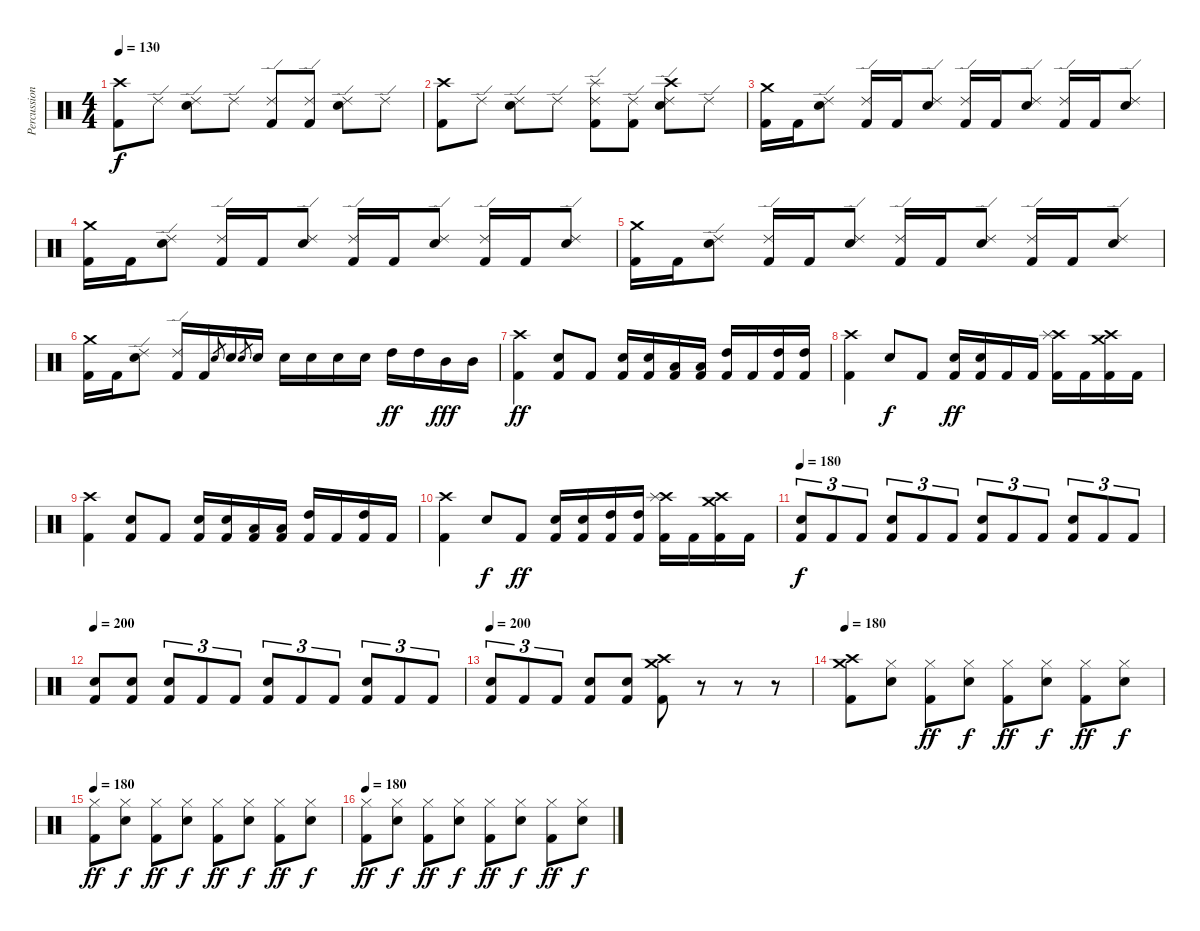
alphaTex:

\track ("Percussion" "Percussion") {instrument percussion}
\staff {score}
\articulation defaults
\ts (4 4)
\tempo 130
\clef neutral
\ks c
("Crash high (hit)" "Kick (hit) 2").8{dy f} "Ride (edge) 2".8 ("Ride (edge) 2" "Snare (hit) 2").8 "Ride (edge) 2".8 ("Ride (edge) 2" "Kick (hit) 2").8 ("Ride (edge) 2" "Kick (hit) 2").8 ("Ride (edge) 2" "Snare (hit) 2").8 "Ride (edge) 2".8 |
("Crash high (hit)" "Kick (hit) 2").8 "Ride (edge) 2".8 ("Ride (edge) 2" "Snare (hit) 2").8 "Ride (edge) 2".8 ("Splash (hit)" "Ride (edge) 2" "Kick (hit) 2").8 ("Ride (edge) 2" "Kick (hit) 2").8 ("Crash high (hit)" "Ride (edge) 2" "Snare (hit) 2").8 "Ride (edge) 2".8 |
("Crash medium (hit)" "Kick (hit) 2").16 "Kick (hit) 2".16 ("Ride (edge) 2" "Snare (hit) 2").8 ("Ride (edge) 2" "Kick (hit) 2").16 "Kick (hit) 2".16 ("Ride (edge) 2" "Snare (hit) 2").8 ("Ride (edge) 2" "Kick (hit) 2").16 "Kick (hit) 2".16 ("Ride (edge) 2" "Snare (hit) 2").8 ("Ride (edge) 2" "Kick (hit) 2").16 "Kick (hit) 2".16 ("Ride (edge) 2" "Snare (hit) 2").8 |
("Crash medium (hit)" "Kick (hit) 2").16 "Kick (hit) 2".16 ("Ride (edge) 2" "Snare (hit) 2").8 ("Ride (edge) 2" "Kick (hit) 2").16 "Kick (hit) 2".16 ("Ride (edge) 2" "Snare (hit) 2").8 ("Ride (edge) 2" "Kick (hit) 2").16 "Kick (hit) 2".16 ("Ride (edge) 2" "Snare (hit) 2").8 ("Ride (edge) 2" "Kick (hit) 2").16 "Kick (hit) 2".16 ("Ride (edge) 2" "Snare (hit) 2").8 |
("Crash medium (hit)" "Kick (hit) 2").16 "Kick (hit) 2".16 ("Ride (edge) 2" "Snare (hit) 2").8 ("Ride (edge) 2" "Kick (hit) 2").16 "Kick (hit) 2".16 ("Ride (edge) 2" "Snare (hit) 2").8 ("Ride (edge) 2" "Kick (hit) 2").16 "Kick (hit) 2".16 ("Ride (edge) 2" "Snare (hit) 2").8 ("Ride (edge) 2" "Kick (hit) 2").16 "Kick (hit) 2".16 ("Ride (edge) 2" "Snare (hit) 2").8 |
("Crash medium (hit)" "Kick (hit) 2").16 "Kick (hit) 2".16 ("Ride (edge) 2" "Snare (hit) 2").8 ("Ride (edge) 2" "Kick (hit) 2").16 "Kick (hit) 2".16 "Snare (hit) 2".8{gr} "Snare (hit) 2".16 "Snare (hit) 2".8{gr} "Snare (hit) 2".16 "Snare (hit) 2".16 "Snare (hit) 2".16 "Snare (hit) 2".16 "Snare (hit) 2".16 "High Tom (hit)".16{dy ff} "High Tom (hit)".16 "Mid Tom (hit)".16{dy fff} "Mid Tom (hit)".16 |
("Crash high (hit)" "Kick (hit) 2").4{dy ff} ("Snare (hit) 2" "Kick (hit) 2").8 "Kick (hit) 2".8 ("Snare (hit) 2" "Kick (hit) 2").16 ("Snare (hit) 2" "Kick (hit) 2").16 ("Low Tom (hit)" "Kick (hit) 2").16 ("Low Tom (hit)" "Kick (hit) 2").16 ("High Tom (hit)" "Kick (hit) 2").16 "Kick (hit) 2".16 ("High Tom (hit)" "Kick (hit) 2").16 ("High Tom (hit)" "Kick (hit) 2").16 |
("Crash high (hit)" "Kick (hit) 2").4 "Snare (hit) 2".8{dy f} "Kick (hit) 2".8 ("Snare (hit) 2" "Kick (hit) 2").16{dy ff} ("Snare (hit) 2" "Kick (hit) 2").16 "Kick (hit) 2".16 "Kick (hit) 2".16 ("Crash high (hit)" "Splash (hit)" "Kick (hit) 2").16 "Kick (hit) 2".16 ("Crash high (hit)" "Crash medium (hit)" "Kick (hit) 2").16 "Kick (hit) 2".16 |
("Crash high (hit)" "Kick (hit) 2").4 ("Snare (hit) 2" "Kick (hit) 2").8 "Kick (hit) 2".8 ("Snare (hit) 2" "Kick (hit) 2").16 ("Snare (hit) 2" "Kick (hit) 2").16 ("Low Tom (hit)" "Kick (hit) 2").16 ("Low Tom (hit)" "Kick (hit) 2").16 ("High Tom (hit)" "Kick (hit) 2").16 "Kick (hit) 2".16 ("High Tom (hit)" "Kick (hit) 2").16 "Kick (hit) 2".16 |
("Crash high (hit)" "Kick (hit) 2").4 "Snare (hit) 2".8{dy f} "Kick (hit) 2".8{dy ff} ("Snare (hit) 2" "Kick (hit) 2").16 ("Snare (hit) 2" "Kick (hit) 2").16 ("High Tom (hit)" "Kick (hit) 2").16 ("High Tom (hit)" "Kick (hit) 2").16 ("Crash high (hit)" "Splash (hit)" "Kick (hit) 2").16 "Kick (hit) 2".16 ("Crash high (hit)" "Crash medium (hit)" "Kick (hit) 2").16 "Kick (hit) 2".16 |
\tempo 180
("Snare (hit) 2" "Kick (hit) 2").8{tu (3 2) dy f} "Kick (hit) 2".8{tu (3 2)} "Kick (hit) 2".8{tu (3 2)} ("Snare (hit) 2" "Kick (hit) 2").8{tu (3 2)} "Kick (hit) 2".8{tu (3 2)} "Kick (hit) 2".8{tu (3 2)} ("Snare (hit) 2" "Kick (hit) 2").8{tu (3 2)} "Kick (hit) 2".8{tu (3 2)} "Kick (hit) 2".8{tu (3 2)} ("Snare (hit) 2" "Kick (hit) 2").8{tu (3 2)} "Kick (hit) 2".8{tu (3 2)} "Kick (hit) 2".8{tu (3 2)} |
\tempo 200
("Snare (hit) 2" "Kick (hit) 2").8 ("Snare (hit) 2" "Kick (hit) 2").8 ("Snare (hit) 2" "Kick (hit) 2").8{tu (3 2)} "Kick (hit) 2".8{tu (3 2)} "Kick (hit) 2".8{tu (3 2)} ("Snare (hit) 2" "Kick (hit) 2").8{tu (3 2)} "Kick (hit) 2".8{tu (3 2)} "Kick (hit) 2".8{tu (3 2)} ("Snare (hit) 2" "Kick (hit) 2").8{tu (3 2)} "Kick (hit) 2".8{tu (3 2)} "Kick (hit) 2".8{tu (3 2)} |
\tempo 200
("Snare (hit) 2" "Kick (hit) 2").8{tu (3 2)} "Kick (hit) 2".8{tu (3 2)} "Kick (hit) 2".8{tu (3 2)} ("Snare (hit) 2" "Kick (hit) 2").8 ("Snare (hit) 2" "Kick (hit) 2").8 ("Crash medium (hit)" "Crash high (hit)" "Kick (hit) 2").8 r.8 r.8 r.8 |
\tempo 180
("Crash high (hit)" "Crash medium (hit)" "Kick (hit) 2").8 ("Hi-Hat (closed)" "Snare (hit) 2").8 ("Hi-Hat (closed)" "Kick (hit) 2").8{dy ff} ("Hi-Hat (closed)" "Snare (hit) 2").8{dy f} ("Hi-Hat (closed)" "Kick (hit) 2").8{dy ff} ("Hi-Hat (closed)" "Snare (hit) 2").8{dy f} ("Hi-Hat (closed)" "Kick (hit) 2").8{dy ff} ("Hi-Hat (closed)" "Snare (hit) 2").8{dy f} |
\tempo 180
("Hi-Hat (closed)" "Kick (hit) 2").8{dy ff} ("Hi-Hat (closed)" "Snare (hit) 2").8{dy f} ("Hi-Hat (closed)" "Kick (hit) 2").8{dy ff} ("Hi-Hat (closed)" "Snare (hit) 2").8{dy f} ("Hi-Hat (closed)" "Kick (hit) 2").8{dy ff} ("Hi-Hat (closed)" "Snare (hit) 2").8{dy f} ("Hi-Hat (closed)" "Kick (hit) 2").8{dy ff} ("Hi-Hat (closed)" "Snare (hit) 2").8{dy f} |
\tempo 180
("Hi-Hat (closed)" "Kick (hit) 2").8{dy ff} ("Hi-Hat (closed)" "Snare (hit) 2").8{dy f} ("Hi-Hat (closed)" "Kick (hit) 2").8{dy ff} ("Hi-Hat (closed)" "Snare (hit) 2").8{dy f} ("Hi-Hat (closed)" "Kick (hit) 2").8{dy ff} ("Hi-Hat (closed)" "Snare (hit) 2").8{dy f} ("Hi-Hat (closed)" "Kick (hit) 2").8{dy ff} ("Hi-Hat (closed)" "Snare (hit) 2").8{dy f}
